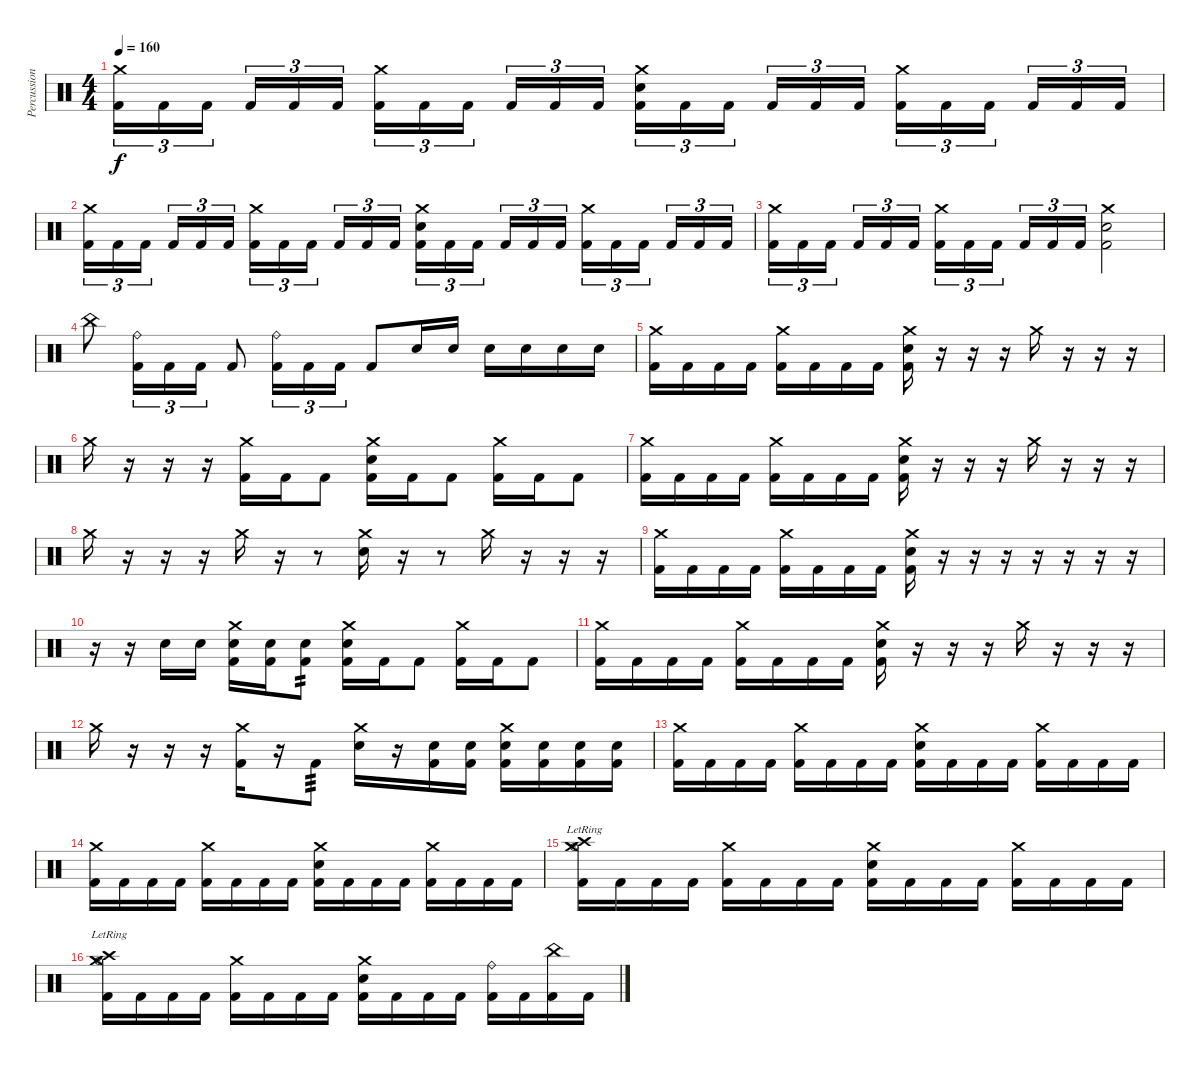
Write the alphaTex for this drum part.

\track ("Percussion" "Percussion") {instrument percussion}
\staff {score}
\articulation defaults
\ts (4 4)
\tempo 160
\clef neutral
\ks c
("Crash medium (hit)" "Kick (hit) 2").16{tu (3 2) dy f} "Kick (hit) 2".16{tu (3 2)} "Kick (hit) 2".16{tu (3 2)} "Kick (hit) 2".16{tu (3 2)} "Kick (hit) 2".16{tu (3 2)} "Kick (hit) 2".16{tu (3 2)} ("Crash medium (hit)" "Kick (hit) 2").16{tu (3 2)} "Kick (hit) 2".16{tu (3 2)} "Kick (hit) 2".16{tu (3 2)} "Kick (hit) 2".16{tu (3 2)} "Kick (hit) 2".16{tu (3 2)} "Kick (hit) 2".16{tu (3 2)} ("Crash medium (hit)" "Snare (hit) 2" "Kick (hit) 2").16{tu (3 2)} "Kick (hit) 2".16{tu (3 2)} "Kick (hit) 2".16{tu (3 2)} "Kick (hit) 2".16{tu (3 2)} "Kick (hit) 2".16{tu (3 2)} "Kick (hit) 2".16{tu (3 2)} ("Crash medium (hit)" "Kick (hit) 2").16{tu (3 2)} "Kick (hit) 2".16{tu (3 2)} "Kick (hit) 2".16{tu (3 2)} "Kick (hit) 2".16{tu (3 2)} "Kick (hit) 2".16{tu (3 2)} "Kick (hit) 2".16{tu (3 2)} |
("Crash medium (hit)" "Kick (hit) 2").16{tu (3 2)} "Kick (hit) 2".16{tu (3 2)} "Kick (hit) 2".16{tu (3 2)} "Kick (hit) 2".16{tu (3 2)} "Kick (hit) 2".16{tu (3 2)} "Kick (hit) 2".16{tu (3 2)} ("Crash medium (hit)" "Kick (hit) 2").16{tu (3 2)} "Kick (hit) 2".16{tu (3 2)} "Kick (hit) 2".16{tu (3 2)} "Kick (hit) 2".16{tu (3 2)} "Kick (hit) 2".16{tu (3 2)} "Kick (hit) 2".16{tu (3 2)} ("Crash medium (hit)" "Snare (hit) 2" "Kick (hit) 2").16{tu (3 2)} "Kick (hit) 2".16{tu (3 2)} "Kick (hit) 2".16{tu (3 2)} "Kick (hit) 2".16{tu (3 2)} "Kick (hit) 2".16{tu (3 2)} "Kick (hit) 2".16{tu (3 2)} ("Crash medium (hit)" "Kick (hit) 2").16{tu (3 2)} "Kick (hit) 2".16{tu (3 2)} "Kick (hit) 2".16{tu (3 2)} "Kick (hit) 2".16{tu (3 2)} "Kick (hit) 2".16{tu (3 2)} "Kick (hit) 2".16{tu (3 2)} |
("Crash medium (hit)" "Kick (hit) 2").16{tu (3 2)} "Kick (hit) 2".16{tu (3 2)} "Kick (hit) 2".16{tu (3 2)} "Kick (hit) 2".16{tu (3 2)} "Kick (hit) 2".16{tu (3 2)} "Kick (hit) 2".16{tu (3 2)} ("Crash medium (hit)" "Kick (hit) 2").16{tu (3 2)} "Kick (hit) 2".16{tu (3 2)} "Kick (hit) 2".16{tu (3 2)} "Kick (hit) 2".16{tu (3 2)} "Kick (hit) 2".16{tu (3 2)} "Kick (hit) 2".16{tu (3 2)} ("Crash medium (hit)" "Snare (hit) 2" "Kick (hit) 2").2 |
"China (hit)".8 ("Ride (bell)" "Kick (hit) 2").16{tu (3 2)} "Kick (hit) 2".16{tu (3 2)} "Kick (hit) 2".16{tu (3 2)} "Kick (hit) 2".8 ("Ride (bell)" "Kick (hit) 2").16{tu (3 2)} "Kick (hit) 2".16{tu (3 2)} "Kick (hit) 2".16{tu (3 2)} "Kick (hit) 2".8 "Snare (hit) 2".16 "Snare (hit) 2".16 "Snare (hit) 2".16 "Snare (hit) 2".16 "Snare (hit) 2".16 "Snare (hit) 2".16 |
("Crash medium (hit)" "Kick (hit) 2").16 "Kick (hit) 2".16 "Kick (hit) 2".16 "Kick (hit) 2".16 ("Crash medium (hit)" "Kick (hit) 2").16 "Kick (hit) 2".16 "Kick (hit) 2".16 "Kick (hit) 2".16 ("Crash medium (hit)" "Snare (hit) 2" "Kick (hit) 2").16 r.16 r.16 r.16 "Crash medium (hit)".16 r.16 r.16 r.16 |
"Crash medium (hit)".16 r.16 r.16 r.16 ("Crash medium (hit)" "Kick (hit) 2").16 "Kick (hit) 2".16 "Kick (hit) 2".8 ("Crash medium (hit)" "Snare (hit) 2" "Kick (hit) 2").16 "Kick (hit) 2".16 "Kick (hit) 2".8 ("Crash medium (hit)" "Kick (hit) 2").16 "Kick (hit) 2".16 "Kick (hit) 2".8 |
("Crash medium (hit)" "Kick (hit) 2").16 "Kick (hit) 2".16 "Kick (hit) 2".16 "Kick (hit) 2".16 ("Crash medium (hit)" "Kick (hit) 2").16 "Kick (hit) 2".16 "Kick (hit) 2".16 "Kick (hit) 2".16 ("Crash medium (hit)" "Snare (hit) 2" "Kick (hit) 2").16 r.16 r.16 r.16 "Crash medium (hit)".16 r.16 r.16 r.16 |
"Crash medium (hit)".16 r.16 r.16 r.16 "Crash medium (hit)".16 r.16 r.8 ("Crash medium (hit)" "Snare (hit) 2").16 r.16 r.8 "Crash medium (hit)".16 r.16 r.16 r.16 |
("Crash medium (hit)" "Kick (hit) 2").16 "Kick (hit) 2".16 "Kick (hit) 2".16 "Kick (hit) 2".16 ("Crash medium (hit)" "Kick (hit) 2").16 "Kick (hit) 2".16 "Kick (hit) 2".16 "Kick (hit) 2".16 ("Crash medium (hit)" "Snare (hit) 2" "Kick (hit) 2").16 r.16 r.16 r.16 r.16 r.16 r.16 r.16 |
r.16 r.16 "Snare (hit) 2".16 "Snare (hit) 2".16 ("Crash medium (hit)" "Snare (hit) 2" "Kick (hit) 2").16 ("Snare (hit) 2" "Kick (hit) 2").16 ("Snare (hit) 2" "Kick (hit) 2").8{tp 2} ("Crash medium (hit)" "Snare (hit) 2" "Kick (hit) 2").16 "Kick (hit) 2".16 "Kick (hit) 2".8 ("Crash medium (hit)" "Kick (hit) 2").16 "Kick (hit) 2".16 "Kick (hit) 2".8 |
("Crash medium (hit)" "Kick (hit) 2").16 "Kick (hit) 2".16 "Kick (hit) 2".16 "Kick (hit) 2".16 ("Crash medium (hit)" "Kick (hit) 2").16 "Kick (hit) 2".16 "Kick (hit) 2".16 "Kick (hit) 2".16 ("Crash medium (hit)" "Snare (hit) 2" "Kick (hit) 2").16 r.16 r.16 r.16 "Crash medium (hit)".16 r.16 r.16 r.16 |
"Crash medium (hit)".16 r.16 r.16 r.16 ("Crash medium (hit)" "Kick (hit) 2").16 r.16 "Kick (hit) 2".8{tp 3} ("Crash medium (hit)" "Snare (hit) 2").16 r.16 ("Snare (hit) 2" "Kick (hit) 2").16 ("Snare (hit) 2" "Kick (hit) 2").16 ("Crash medium (hit)" "Snare (hit) 2" "Kick (hit) 2").16 ("Snare (hit) 2" "Kick (hit) 2").16 ("Snare (hit) 2" "Kick (hit) 2").16 ("Snare (hit) 2" "Kick (hit) 2").16 |
("Crash medium (hit)" "Kick (hit) 2").16 "Kick (hit) 2".16 "Kick (hit) 2".16 "Kick (hit) 2".16 ("Crash medium (hit)" "Kick (hit) 2").16 "Kick (hit) 2".16 "Kick (hit) 2".16 "Kick (hit) 2".16 ("Crash medium (hit)" "Snare (hit) 2" "Kick (hit) 2").16 "Kick (hit) 2".16 "Kick (hit) 2".16 "Kick (hit) 2".16 ("Crash medium (hit)" "Kick (hit) 2").16 "Kick (hit) 2".16 "Kick (hit) 2".16 "Kick (hit) 2".16 |
("Crash medium (hit)" "Kick (hit) 2").16 "Kick (hit) 2".16 "Kick (hit) 2".16 "Kick (hit) 2".16 ("Crash medium (hit)" "Kick (hit) 2").16 "Kick (hit) 2".16 "Kick (hit) 2".16 "Kick (hit) 2".16 ("Crash medium (hit)" "Snare (hit) 2" "Kick (hit) 2").16 "Kick (hit) 2".16 "Kick (hit) 2".16 "Kick (hit) 2".16 ("Crash medium (hit)" "Kick (hit) 2").16 "Kick (hit) 2".16 "Kick (hit) 2".16 "Kick (hit) 2".16 |
("Crash high (hit)"{lr} "Crash medium (hit)" "Hi-Hat (open)"{lr} "Kick (hit) 2").16 "Kick (hit) 2".16 "Kick (hit) 2".16 "Kick (hit) 2".16 ("Crash medium (hit)" "Kick (hit) 2").16 "Kick (hit) 2".16 "Kick (hit) 2".16 "Kick (hit) 2".16 ("Crash medium (hit)" "Snare (hit) 2" "Kick (hit) 2").16 "Kick (hit) 2".16 "Kick (hit) 2".16 "Kick (hit) 2".16 ("Crash medium (hit)" "Kick (hit) 2").16 "Kick (hit) 2".16 "Kick (hit) 2".16 "Kick (hit) 2".16 |
("Crash high (hit)"{lr} "Crash medium (hit)" "Hi-Hat (open)"{lr} "Kick (hit) 2").16 "Kick (hit) 2".16 "Kick (hit) 2".16 "Kick (hit) 2".16 ("Crash medium (hit)" "Kick (hit) 2").16 "Kick (hit) 2".16 "Kick (hit) 2".16 "Kick (hit) 2".16 ("Crash medium (hit)" "Snare (hit) 2" "Kick (hit) 2").16 "Kick (hit) 2".16 "Kick (hit) 2".16 "Kick (hit) 2".16 ("Ride (bell)" "Kick (hit) 2").16 "Kick (hit) 2".16 ("China (hit)" "Kick (hit) 2").16 "Kick (hit) 2".16
